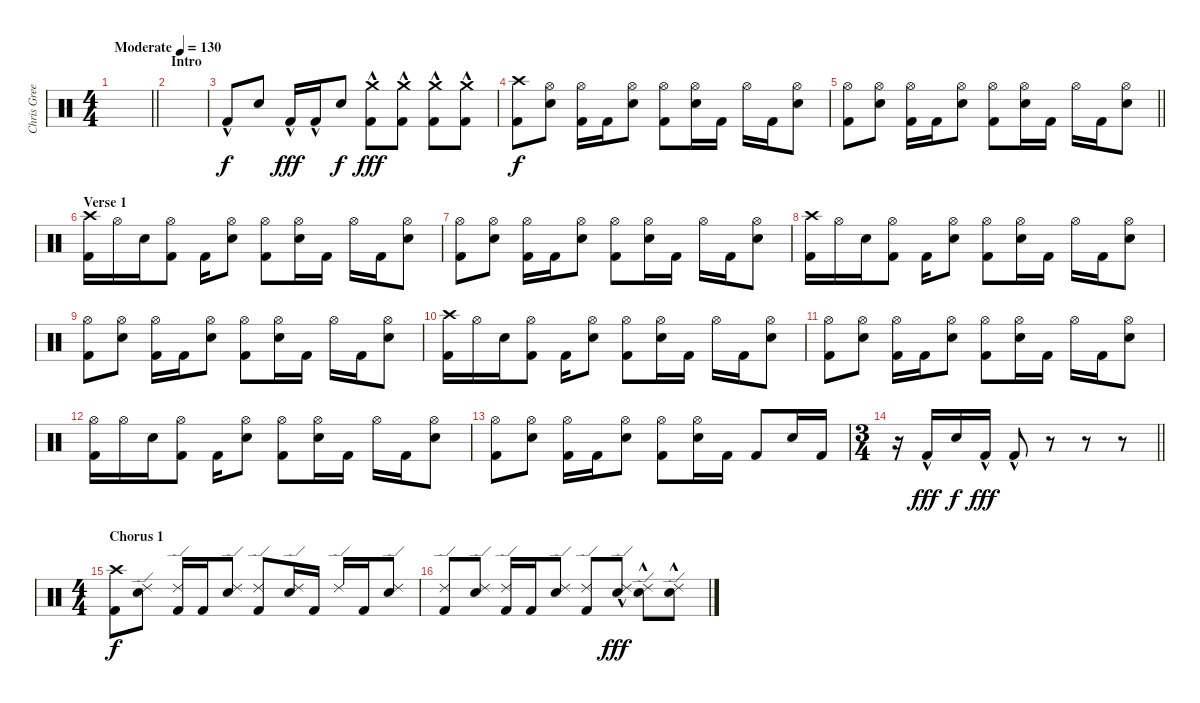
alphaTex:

\track ("Chris Greer - Drums" "Chris Gree") {instrument percussion}
\staff {score}
\articulation defaults
\ts (4 4)
\tempo (130 "Moderate")
\clef neutral
\barLineRight lightlight
\ks c
|
\section ("" "Intro")
|
"Kick (hit) 2"{hac}.8 "Electric Snare (hit)".8{dy f} "Kick (hit) 2"{hac}.16{dy fff} "Kick (hit) 2"{hac}.16 "Electric Snare (hit)".8{dy f} ("Crash medium (hit)" "Kick (hit) 2"{hac}).8{dy fff} ("Crash medium (hit)" "Kick (hit) 2"{hac}).8 ("Crash medium (hit)" "Kick (hit) 2"{hac}).8 ("Crash medium (hit)" "Kick (hit) 2"{hac}).8 |
("Crash high (hit)" "Kick (hit) 2").8{dy f} ("Hi-Hat (open)" "Electric Snare (hit)").8 ("Hi-Hat (open)" "Kick (hit) 2").16 "Kick (hit) 2".16 ("Hi-Hat (open)" "Electric Snare (hit)").8 ("Hi-Hat (open)" "Kick (hit) 2").8 ("Hi-Hat (open)" "Electric Snare (hit)").16 "Kick (hit) 2".16 "Hi-Hat (open)".16 "Kick (hit) 2".16 ("Hi-Hat (open)" "Electric Snare (hit)").8 |
\barLineRight lightlight
("Hi-Hat (open)" "Kick (hit) 2").8 ("Hi-Hat (open)" "Electric Snare (hit)").8 ("Hi-Hat (open)" "Kick (hit) 2").16 "Kick (hit) 2".16 ("Hi-Hat (open)" "Electric Snare (hit)").8 ("Hi-Hat (open)" "Kick (hit) 2").8 ("Hi-Hat (open)" "Electric Snare (hit)").16 "Kick (hit) 2".16 "Hi-Hat (open)".16 "Kick (hit) 2".16 ("Hi-Hat (open)" "Electric Snare (hit)").8 |
\section ("" "Verse 1 ")
("Crash high (hit)" "Kick (hit) 2").16 "Hi-Hat (open)".16 "Electric Snare (hit)".16 ("Hi-Hat (open)" "Kick (hit) 2").8 "Kick (hit) 2".16 ("Hi-Hat (open)" "Electric Snare (hit)").8 ("Hi-Hat (open)" "Kick (hit) 2").8 ("Hi-Hat (open)" "Electric Snare (hit)").16 "Kick (hit) 2".16 "Hi-Hat (open)".16 "Kick (hit) 2".16 ("Hi-Hat (open)" "Electric Snare (hit)").8 |
("Hi-Hat (open)" "Kick (hit) 2").8 ("Hi-Hat (open)" "Electric Snare (hit)").8 ("Hi-Hat (open)" "Kick (hit) 2").16 "Kick (hit) 2".16 ("Hi-Hat (open)" "Electric Snare (hit)").8 ("Hi-Hat (open)" "Kick (hit) 2").8 ("Hi-Hat (open)" "Electric Snare (hit)").16 "Kick (hit) 2".16 "Hi-Hat (open)".16 "Kick (hit) 2".16 ("Hi-Hat (open)" "Electric Snare (hit)").8 |
("Crash high (hit)" "Kick (hit) 2").16 "Hi-Hat (open)".16 "Electric Snare (hit)".16 ("Hi-Hat (open)" "Kick (hit) 2").8 "Kick (hit) 2".16 ("Hi-Hat (open)" "Electric Snare (hit)").8 ("Hi-Hat (open)" "Kick (hit) 2").8 ("Hi-Hat (open)" "Electric Snare (hit)").16 "Kick (hit) 2".16 "Hi-Hat (open)".16 "Kick (hit) 2".16 ("Hi-Hat (open)" "Electric Snare (hit)").8 |
("Hi-Hat (open)" "Kick (hit) 2").8 ("Hi-Hat (open)" "Electric Snare (hit)").8 ("Hi-Hat (open)" "Kick (hit) 2").16 "Kick (hit) 2".16 ("Hi-Hat (open)" "Electric Snare (hit)").8 ("Hi-Hat (open)" "Kick (hit) 2").8 ("Hi-Hat (open)" "Electric Snare (hit)").16 "Kick (hit) 2".16 "Hi-Hat (open)".16 "Kick (hit) 2".16 ("Hi-Hat (open)" "Electric Snare (hit)").8 |
("Crash high (hit)" "Kick (hit) 2").16 "Hi-Hat (open)".16 "Electric Snare (hit)".16 ("Hi-Hat (open)" "Kick (hit) 2").8 "Kick (hit) 2".16 ("Hi-Hat (open)" "Electric Snare (hit)").8 ("Hi-Hat (open)" "Kick (hit) 2").8 ("Hi-Hat (open)" "Electric Snare (hit)").16 "Kick (hit) 2".16 "Hi-Hat (open)".16 "Kick (hit) 2".16 ("Hi-Hat (open)" "Electric Snare (hit)").8 |
("Hi-Hat (open)" "Kick (hit) 2").8 ("Hi-Hat (open)" "Electric Snare (hit)").8 ("Hi-Hat (open)" "Kick (hit) 2").16 "Kick (hit) 2".16 ("Hi-Hat (open)" "Electric Snare (hit)").8 ("Hi-Hat (open)" "Kick (hit) 2").8 ("Hi-Hat (open)" "Electric Snare (hit)").16 "Kick (hit) 2".16 "Hi-Hat (open)".16 "Kick (hit) 2".16 ("Hi-Hat (open)" "Electric Snare (hit)").8 |
("Hi-Hat (open)" "Kick (hit) 2").16 "Hi-Hat (open)".16 "Electric Snare (hit)".16 ("Hi-Hat (open)" "Kick (hit) 2").8 "Kick (hit) 2".16 ("Hi-Hat (open)" "Electric Snare (hit)").8 ("Hi-Hat (open)" "Kick (hit) 2").8 ("Hi-Hat (open)" "Electric Snare (hit)").16 "Kick (hit) 2".16 "Hi-Hat (open)".16 "Kick (hit) 2".16 ("Hi-Hat (open)" "Electric Snare (hit)").8 |
("Hi-Hat (open)" "Kick (hit) 2").8 ("Hi-Hat (open)" "Electric Snare (hit)").8 ("Hi-Hat (open)" "Kick (hit) 2").16 "Kick (hit) 2".16 ("Hi-Hat (open)" "Electric Snare (hit)").8 ("Hi-Hat (open)" "Kick (hit) 2").8 ("Hi-Hat (open)" "Electric Snare (hit)").16 "Kick (hit) 2".16 "Kick (hit) 2".8 "Electric Snare (hit)".16 "Kick (hit) 2".16 |
\ts (3 4)
\barLineRight lightlight
r.16 "Kick (hit) 2"{hac}.16{dy fff} "Electric Snare (hit)".16{dy f} "Kick (hit) 2"{hac}.16{dy fff} "Kick (hit) 2"{hac}.8 r.8 r.8 r.8 |
\ts (4 4)
\section ("" "Chorus 1")
("Crash high (hit)" "Kick (hit) 2").8{dy f} ("Ride (edge) 2" "Electric Snare (hit)").8 ("Ride (edge) 2" "Kick (hit) 2").16 "Kick (hit) 2".16 ("Ride (edge) 2" "Electric Snare (hit)").8 ("Ride (edge) 2" "Kick (hit) 2").8 ("Ride (edge) 2" "Electric Snare (hit)").16 "Kick (hit) 2".16 "Ride (edge) 2".16 "Kick (hit) 2".16 ("Ride (edge) 2" "Electric Snare (hit)").8 |
("Ride (edge) 2" "Kick (hit) 2").8 ("Ride (edge) 2" "Electric Snare (hit)").8 ("Ride (edge) 2" "Kick (hit) 2").16 "Kick (hit) 2".16 ("Ride (edge) 2" "Electric Snare (hit)").8 ("Ride (edge) 2" "Kick (hit) 2").8 ("Ride (edge) 2" "Electric Snare (hit)"{hac}).8{dy fff} ("Ride (edge) 2" "Electric Snare (hit)"{hac}).8 ("Ride (edge) 2" "Electric Snare (hit)"{hac}).8
